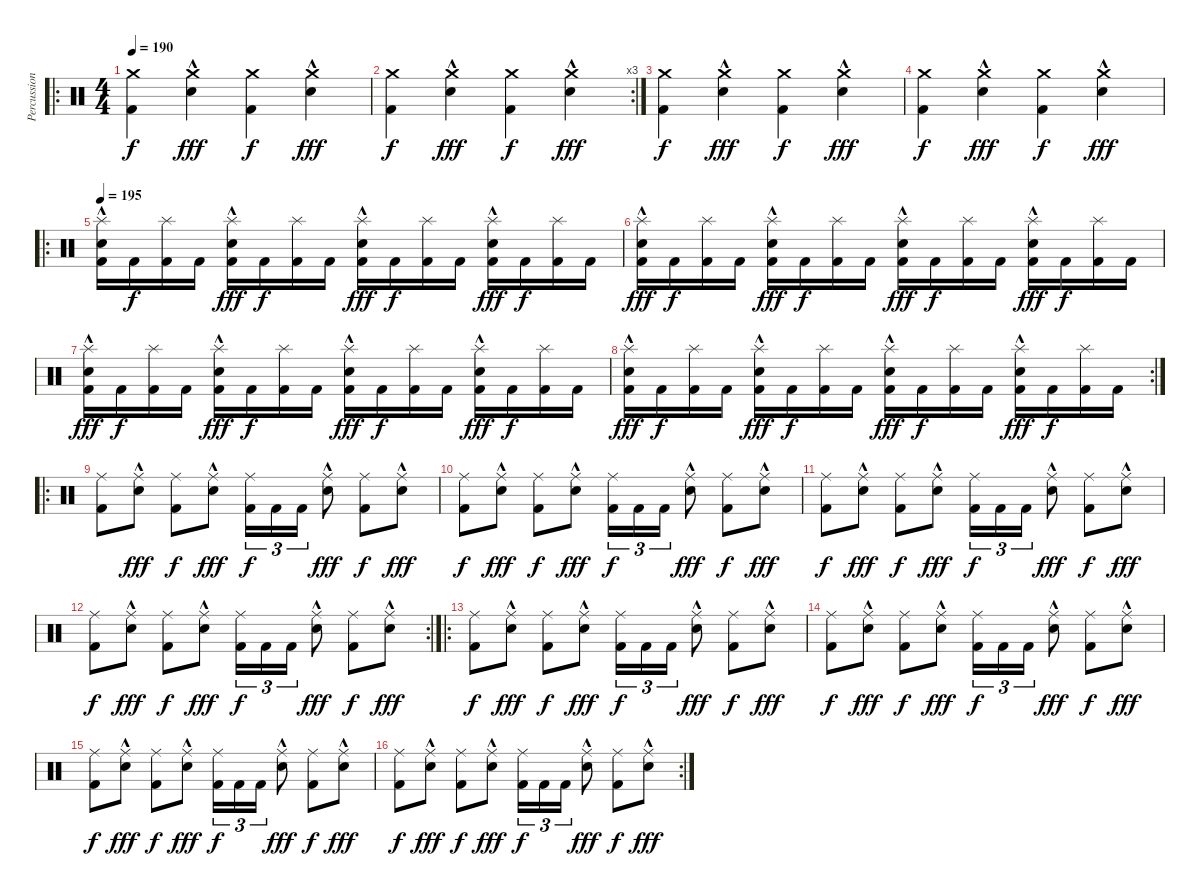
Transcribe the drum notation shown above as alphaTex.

\track ("Percussion" "Percussion") {instrument percussion}
\staff {score}
\articulation defaults
\ro
\ts (4 4)
\tempo 190
\clef neutral
\ks c
("Crash medium (hit)" "Kick (hit) 2").4{dy f} ("Crash medium (hit)" "Snare (hit) 2"{hac}).4{dy fff} ("Crash medium (hit)" "Kick (hit) 2").4{dy f} ("Crash medium (hit)" "Snare (hit) 2"{hac}).4{dy fff} |
\rc 3
("Crash medium (hit)" "Kick (hit) 2").4{dy f} ("Crash medium (hit)" "Snare (hit) 2"{hac}).4{dy fff} ("Crash medium (hit)" "Kick (hit) 2").4{dy f} ("Crash medium (hit)" "Snare (hit) 2"{hac}).4{dy fff} |
("Crash medium (hit)" "Kick (hit) 2").4{dy f} ("Crash medium (hit)" "Snare (hit) 2"{hac}).4{dy fff} ("Crash medium (hit)" "Kick (hit) 2").4{dy f} ("Crash medium (hit)" "Snare (hit) 2"{hac}).4{dy fff} |
("Crash medium (hit)" "Kick (hit) 2").4{dy f} ("Crash medium (hit)" "Snare (hit) 2"{hac}).4{dy fff} ("Crash medium (hit)" "Kick (hit) 2").4{dy f} ("Crash medium (hit)" "Snare (hit) 2"{hac}).4{dy fff} |
\ro
\tempo 195
("Splash (hit)" "Snare (hit) 2"{hac} "Kick (hit) 2").16 "Kick (hit) 2".16{dy f} ("Splash (hit)" "Kick (hit) 2").16 "Kick (hit) 2".16 ("Splash (hit)" "Snare (hit) 2"{hac} "Kick (hit) 2").16{dy fff} "Kick (hit) 2".16{dy f} ("Splash (hit)" "Kick (hit) 2").16 "Kick (hit) 2".16 ("Splash (hit)" "Snare (hit) 2"{hac} "Kick (hit) 2").16{dy fff} "Kick (hit) 2".16{dy f} ("Splash (hit)" "Kick (hit) 2").16 "Kick (hit) 2".16 ("Splash (hit)" "Snare (hit) 2"{hac} "Kick (hit) 2").16{dy fff} "Kick (hit) 2".16{dy f} ("Splash (hit)" "Kick (hit) 2").16 "Kick (hit) 2".16 |
("Splash (hit)" "Snare (hit) 2"{hac} "Kick (hit) 2").16{dy fff} "Kick (hit) 2".16{dy f} ("Splash (hit)" "Kick (hit) 2").16 "Kick (hit) 2".16 ("Splash (hit)" "Snare (hit) 2"{hac} "Kick (hit) 2").16{dy fff} "Kick (hit) 2".16{dy f} ("Splash (hit)" "Kick (hit) 2").16 "Kick (hit) 2".16 ("Splash (hit)" "Snare (hit) 2"{hac} "Kick (hit) 2").16{dy fff} "Kick (hit) 2".16{dy f} ("Splash (hit)" "Kick (hit) 2").16 "Kick (hit) 2".16 ("Splash (hit)" "Snare (hit) 2"{hac} "Kick (hit) 2").16{dy fff} "Kick (hit) 2".16{dy f} ("Splash (hit)" "Kick (hit) 2").16 "Kick (hit) 2".16 |
("Splash (hit)" "Snare (hit) 2"{hac} "Kick (hit) 2").16{dy fff} "Kick (hit) 2".16{dy f} ("Splash (hit)" "Kick (hit) 2").16 "Kick (hit) 2".16 ("Splash (hit)" "Snare (hit) 2"{hac} "Kick (hit) 2").16{dy fff} "Kick (hit) 2".16{dy f} ("Splash (hit)" "Kick (hit) 2").16 "Kick (hit) 2".16 ("Splash (hit)" "Snare (hit) 2"{hac} "Kick (hit) 2").16{dy fff} "Kick (hit) 2".16{dy f} ("Splash (hit)" "Kick (hit) 2").16 "Kick (hit) 2".16 ("Splash (hit)" "Snare (hit) 2"{hac} "Kick (hit) 2").16{dy fff} "Kick (hit) 2".16{dy f} ("Splash (hit)" "Kick (hit) 2").16 "Kick (hit) 2".16 |
\rc 2
("Splash (hit)" "Snare (hit) 2"{hac} "Kick (hit) 2").16{dy fff} "Kick (hit) 2".16{dy f} ("Splash (hit)" "Kick (hit) 2").16 "Kick (hit) 2".16 ("Splash (hit)" "Snare (hit) 2"{hac} "Kick (hit) 2").16{dy fff} "Kick (hit) 2".16{dy f} ("Splash (hit)" "Kick (hit) 2").16 "Kick (hit) 2".16 ("Splash (hit)" "Snare (hit) 2"{hac} "Kick (hit) 2").16{dy fff} "Kick (hit) 2".16{dy f} ("Splash (hit)" "Kick (hit) 2").16 "Kick (hit) 2".16 ("Splash (hit)" "Snare (hit) 2"{hac} "Kick (hit) 2").16{dy fff} "Kick (hit) 2".16{dy f} ("Splash (hit)" "Kick (hit) 2").16 "Kick (hit) 2".16 |
\ro
("Ride (middle)" "Kick (hit) 2").8 ("Ride (middle)" "Snare (hit) 2"{hac}).8{dy fff} ("Ride (middle)" "Kick (hit) 2").8{dy f} ("Ride (middle)" "Snare (hit) 2"{hac}).8{dy fff} ("Ride (middle)" "Kick (hit) 2").16{tu (3 2) dy f} "Kick (hit) 2".16{tu (3 2)} "Kick (hit) 2".16{tu (3 2)} ("Ride (middle)" "Snare (hit) 2"{hac}).8{dy fff} ("Ride (middle)" "Kick (hit) 2").8{dy f} ("Ride (middle)" "Snare (hit) 2"{hac}).8{dy fff} |
("Ride (middle)" "Kick (hit) 2").8{dy f} ("Ride (middle)" "Snare (hit) 2"{hac}).8{dy fff} ("Ride (middle)" "Kick (hit) 2").8{dy f} ("Ride (middle)" "Snare (hit) 2"{hac}).8{dy fff} ("Ride (middle)" "Kick (hit) 2").16{tu (3 2) dy f} "Kick (hit) 2".16{tu (3 2)} "Kick (hit) 2".16{tu (3 2)} ("Ride (middle)" "Snare (hit) 2"{hac}).8{dy fff} ("Ride (middle)" "Kick (hit) 2").8{dy f} ("Ride (middle)" "Snare (hit) 2"{hac}).8{dy fff} |
("Ride (middle)" "Kick (hit) 2").8{dy f} ("Ride (middle)" "Snare (hit) 2"{hac}).8{dy fff} ("Ride (middle)" "Kick (hit) 2").8{dy f} ("Ride (middle)" "Snare (hit) 2"{hac}).8{dy fff} ("Ride (middle)" "Kick (hit) 2").16{tu (3 2) dy f} "Kick (hit) 2".16{tu (3 2)} "Kick (hit) 2".16{tu (3 2)} ("Ride (middle)" "Snare (hit) 2"{hac}).8{dy fff} ("Ride (middle)" "Kick (hit) 2").8{dy f} ("Ride (middle)" "Snare (hit) 2"{hac}).8{dy fff} |
\rc 2
("Ride (middle)" "Kick (hit) 2").8{dy f} ("Ride (middle)" "Snare (hit) 2"{hac}).8{dy fff} ("Ride (middle)" "Kick (hit) 2").8{dy f} ("Ride (middle)" "Snare (hit) 2"{hac}).8{dy fff} ("Ride (middle)" "Kick (hit) 2").16{tu (3 2) dy f} "Kick (hit) 2".16{tu (3 2)} "Kick (hit) 2".16{tu (3 2)} ("Ride (middle)" "Snare (hit) 2"{hac}).8{dy fff} ("Ride (middle)" "Kick (hit) 2").8{dy f} ("Ride (middle)" "Snare (hit) 2"{hac}).8{dy fff} |
\ro
("Ride (middle)" "Kick (hit) 2").8{dy f} ("Ride (middle)" "Snare (hit) 2"{hac}).8{dy fff} ("Ride (middle)" "Kick (hit) 2").8{dy f} ("Ride (middle)" "Snare (hit) 2"{hac}).8{dy fff} ("Ride (middle)" "Kick (hit) 2").16{tu (3 2) dy f} "Kick (hit) 2".16{tu (3 2)} "Kick (hit) 2".16{tu (3 2)} ("Ride (middle)" "Snare (hit) 2"{hac}).8{dy fff} ("Ride (middle)" "Kick (hit) 2").8{dy f} ("Ride (middle)" "Snare (hit) 2"{hac}).8{dy fff} |
("Ride (middle)" "Kick (hit) 2").8{dy f} ("Ride (middle)" "Snare (hit) 2"{hac}).8{dy fff} ("Ride (middle)" "Kick (hit) 2").8{dy f} ("Ride (middle)" "Snare (hit) 2"{hac}).8{dy fff} ("Ride (middle)" "Kick (hit) 2").16{tu (3 2) dy f} "Kick (hit) 2".16{tu (3 2)} "Kick (hit) 2".16{tu (3 2)} ("Ride (middle)" "Snare (hit) 2"{hac}).8{dy fff} ("Ride (middle)" "Kick (hit) 2").8{dy f} ("Ride (middle)" "Snare (hit) 2"{hac}).8{dy fff} |
("Ride (middle)" "Kick (hit) 2").8{dy f} ("Ride (middle)" "Snare (hit) 2"{hac}).8{dy fff} ("Ride (middle)" "Kick (hit) 2").8{dy f} ("Ride (middle)" "Snare (hit) 2"{hac}).8{dy fff} ("Ride (middle)" "Kick (hit) 2").16{tu (3 2) dy f} "Kick (hit) 2".16{tu (3 2)} "Kick (hit) 2".16{tu (3 2)} ("Ride (middle)" "Snare (hit) 2"{hac}).8{dy fff} ("Ride (middle)" "Kick (hit) 2").8{dy f} ("Ride (middle)" "Snare (hit) 2"{hac}).8{dy fff} |
\rc 2
("Ride (middle)" "Kick (hit) 2").8{dy f} ("Ride (middle)" "Snare (hit) 2"{hac}).8{dy fff} ("Ride (middle)" "Kick (hit) 2").8{dy f} ("Ride (middle)" "Snare (hit) 2"{hac}).8{dy fff} ("Ride (middle)" "Kick (hit) 2").16{tu (3 2) dy f} "Kick (hit) 2".16{tu (3 2)} "Kick (hit) 2".16{tu (3 2)} ("Ride (middle)" "Snare (hit) 2"{hac}).8{dy fff} ("Ride (middle)" "Kick (hit) 2").8{dy f} ("Ride (middle)" "Snare (hit) 2"{hac}).8{dy fff}
